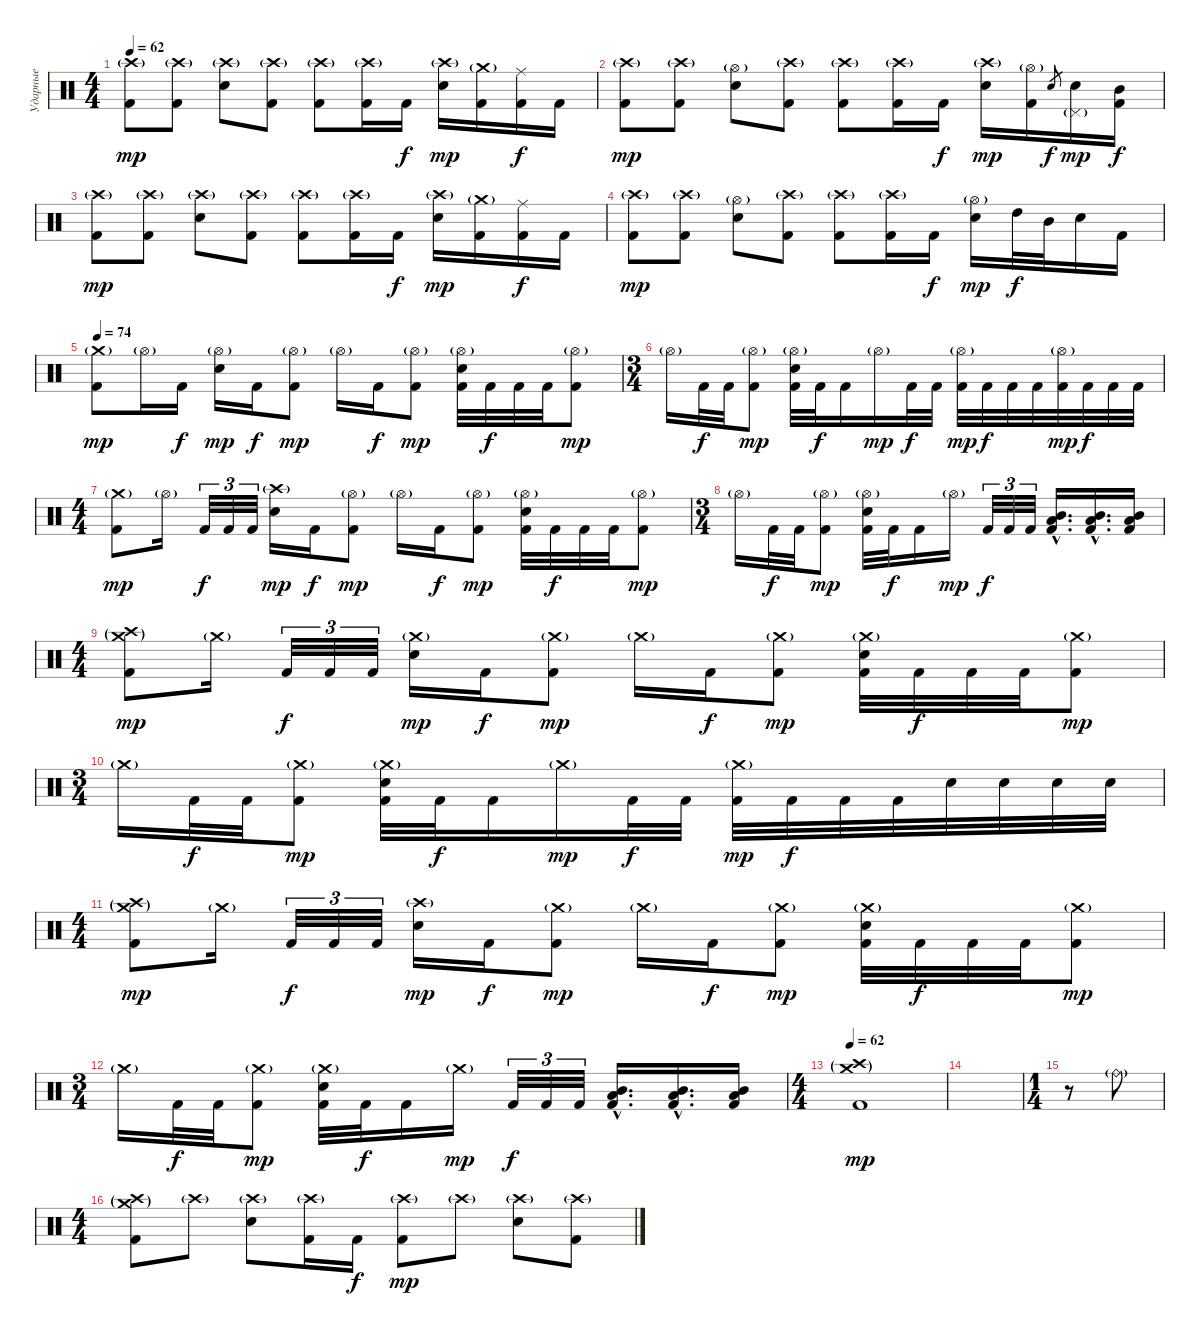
\track ("Ударные" "Ударные") {instrument percussion}
\staff {score}
\articulation defaults
\ts (4 4)
\tempo 62
\clef neutral
\ks c
("Crash high (hit)"{g} "Kick (hit) 2").8{dy mp volume 16} ("Crash high (hit)"{g} "Kick (hit) 2").8 ("Crash high (hit)"{g} "Electric Snare (hit)").8 ("Crash high (hit)"{g} "Kick (hit) 2").8 ("Crash high (hit)"{g} "Kick (hit) 2").8 ("Crash high (hit)"{g} "Kick (hit) 2").16 "Kick (hit) 2".16{dy f} ("Crash high (hit)"{g} "Electric Snare (hit)").16{dy mp} ("Crash medium (hit)"{g} "Kick (hit) 2").16 ("Ride (middle)" "Kick (hit) 2").16{dy f} "Kick (hit) 2".16 |
("Crash high (hit)"{g} "Kick (hit) 2").8{dy mp} ("Crash high (hit)"{g} "Kick (hit) 2").8 ("Hi-Hat (open)"{g} "Electric Snare (hit)").8 ("Crash high (hit)"{g} "Kick (hit) 2").8 ("Crash high (hit)"{g} "Kick (hit) 2").8 ("Crash high (hit)"{g} "Kick (hit) 2").16 "Kick (hit) 2".16{dy f} ("Crash high (hit)"{g} "Electric Snare (hit)").16{dy mp} ("Hi-Hat (open)"{g} "Kick (hit) 2").16 "Electric Snare (hit)".8{gr dy f} ("Pedal Hi-Hat (hit)"{g} "Electric Snare (hit)").16{dy mp} ("Mid Tom (hit)" "Kick (hit) 2").16{dy f} |
("Crash high (hit)"{g} "Kick (hit) 2").8{dy mp} ("Crash high (hit)"{g} "Kick (hit) 2").8 ("Crash high (hit)"{g} "Electric Snare (hit)").8 ("Crash high (hit)"{g} "Kick (hit) 2").8 ("Crash high (hit)"{g} "Kick (hit) 2").8 ("Crash high (hit)"{g} "Kick (hit) 2").16 "Kick (hit) 2".16{dy f} ("Crash high (hit)"{g} "Electric Snare (hit)").16{dy mp} ("Crash medium (hit)"{g} "Kick (hit) 2").16 ("Ride (middle)" "Kick (hit) 2").16{dy f} "Kick (hit) 2".16 |
("Crash high (hit)"{g} "Kick (hit) 2").8{dy mp} ("Crash high (hit)"{g} "Kick (hit) 2").8 ("Hi-Hat (open)"{g} "Electric Snare (hit)").8 ("Crash high (hit)"{g} "Kick (hit) 2").8 ("Crash high (hit)"{g} "Kick (hit) 2").8 ("Crash high (hit)"{g} "Kick (hit) 2").16 "Kick (hit) 2".16{dy f} ("Hi-Hat (open)"{g} "Electric Snare (hit)").16{dy mp} "High Tom (hit)".32{dy f} "Mid Tom (hit)".32 "Electric Snare (hit)".16 "Kick (hit) 2".16 |
\tempo 74
("Crash medium (hit)"{g} "Kick (hit) 2").8{dy mp} "Hi-Hat (open)"{g}.16 "Kick (hit) 2".16{dy f} ("Hi-Hat (open)"{g} "Electric Snare (hit)").16{dy mp} "Kick (hit) 2".16{dy f} ("Hi-Hat (open)"{g} "Kick (hit) 2").8{dy mp} "Hi-Hat (open)"{g}.16 "Kick (hit) 2".16{dy f} ("Hi-Hat (open)"{g} "Kick (hit) 2").8{dy mp} ("Hi-Hat (open)"{g} "Electric Snare (hit)" "Kick (hit) 2").32 "Kick (hit) 2".32{dy f} "Kick (hit) 2".32 "Kick (hit) 2".32 ("Hi-Hat (open)"{g} "Kick (hit) 2").8{dy mp} |
\ts (3 4)
"Hi-Hat (open)"{g}.16 "Kick (hit) 2".32{dy f} "Kick (hit) 2".32 ("Hi-Hat (open)"{g} "Kick (hit) 2").8{dy mp} ("Hi-Hat (open)"{g} "Electric Snare (hit)" "Kick (hit) 2").32 "Kick (hit) 2".32{dy f} "Kick (hit) 2".16 "Hi-Hat (open)"{g}.16{dy mp} "Kick (hit) 2".32{dy f} "Kick (hit) 2".32 ("Hi-Hat (open)"{g} "Kick (hit) 2").32{dy mp} "Kick (hit) 2".32{dy f} "Kick (hit) 2".32 "Kick (hit) 2".32 ("Hi-Hat (open)"{g} "Kick (hit) 2").32{dy mp} "Kick (hit) 2".32{dy f} "Kick (hit) 2".32 "Kick (hit) 2".32 |
\ts (4 4)
("Crash medium (hit)"{g} "Kick (hit) 2").8{dy mp} "Hi-Hat (open)"{g}.16 "Kick (hit) 2".32{tu (3 2) dy f} "Kick (hit) 2".32{tu (3 2)} "Kick (hit) 2".32{tu (3 2)} ("Crash high (hit)"{g} "Electric Snare (hit)").16{dy mp} "Kick (hit) 2".16{dy f} ("Hi-Hat (open)"{g} "Kick (hit) 2").8{dy mp} "Hi-Hat (open)"{g}.16 "Kick (hit) 2".16{dy f} ("Hi-Hat (open)"{g} "Kick (hit) 2").8{dy mp} ("Hi-Hat (open)"{g} "Electric Snare (hit)" "Kick (hit) 2").32 "Kick (hit) 2".32{dy f} "Kick (hit) 2".32 "Kick (hit) 2".32 ("Hi-Hat (open)"{g} "Kick (hit) 2").8{dy mp} |
\ts (3 4)
"Hi-Hat (open)"{g}.16 "Kick (hit) 2".32{dy f} "Kick (hit) 2".32 ("Hi-Hat (open)"{g} "Kick (hit) 2").8{dy mp} ("Hi-Hat (open)"{g} "Electric Snare (hit)" "Kick (hit) 2").32 "Kick (hit) 2".32{dy f} "Kick (hit) 2".16 "Hi-Hat (open)"{g}.16{dy mp} "Kick (hit) 2".32{tu (3 2) dy f} "Kick (hit) 2".32{tu (3 2)} "Kick (hit) 2".32{tu (3 2)} ("Mid Tom (hit)"{hac} "Low Tom (hit)"{hac} "Kick (hit) 2"{hac}).16{d} ("Mid Tom (hit)"{hac} "Low Tom (hit)"{hac} "Kick (hit) 2"{hac}).16{d} ("Mid Tom (hit)" "Low Tom (hit)" "Kick (hit) 2").16 |
\ts (4 4)
("Crash high (hit)"{g} "Crash medium (hit)"{g} "Kick (hit) 2").8{dy mp} "Crash medium (hit)"{g}.16 "Kick (hit) 2".32{tu (3 2) dy f} "Kick (hit) 2".32{tu (3 2)} "Kick (hit) 2".32{tu (3 2)} ("Crash medium (hit)"{g} "Electric Snare (hit)").16{dy mp} "Kick (hit) 2".16{dy f} ("Crash medium (hit)"{g} "Kick (hit) 2").8{dy mp} "Crash medium (hit)"{g}.16 "Kick (hit) 2".16{dy f} ("Crash medium (hit)"{g} "Kick (hit) 2").8{dy mp} ("Crash medium (hit)"{g} "Electric Snare (hit)" "Kick (hit) 2").32 "Kick (hit) 2".32{dy f} "Kick (hit) 2".32 "Kick (hit) 2".32 ("Crash medium (hit)"{g} "Kick (hit) 2").8{dy mp} |
\ts (3 4)
"Crash medium (hit)"{g}.16 "Kick (hit) 2".32{dy f} "Kick (hit) 2".32 ("Crash medium (hit)"{g} "Kick (hit) 2").8{dy mp} ("Crash medium (hit)"{g} "Electric Snare (hit)" "Kick (hit) 2").32 "Kick (hit) 2".32{dy f} "Kick (hit) 2".16 "Crash medium (hit)"{g}.16{dy mp} "Kick (hit) 2".32{dy f} "Kick (hit) 2".32 ("Crash medium (hit)"{g} "Kick (hit) 2").32{dy mp} "Kick (hit) 2".32{dy f} "Kick (hit) 2".32 "Kick (hit) 2".32 "Electric Snare (hit)".32 "Electric Snare (hit)".32 "Electric Snare (hit)".32 "Electric Snare (hit)".32 |
\ts (4 4)
("Crash high (hit)"{g} "Crash medium (hit)"{g} "Kick (hit) 2").8{dy mp} "Crash medium (hit)"{g}.16 "Kick (hit) 2".32{tu (3 2) dy f} "Kick (hit) 2".32{tu (3 2)} "Kick (hit) 2".32{tu (3 2)} ("Crash high (hit)"{g} "Electric Snare (hit)").16{dy mp} "Kick (hit) 2".16{dy f} ("Crash medium (hit)"{g} "Kick (hit) 2").8{dy mp} "Crash medium (hit)"{g}.16 "Kick (hit) 2".16{dy f} ("Crash medium (hit)"{g} "Kick (hit) 2").8{dy mp} ("Crash medium (hit)"{g} "Electric Snare (hit)" "Kick (hit) 2").32 "Kick (hit) 2".32{dy f} "Kick (hit) 2".32 "Kick (hit) 2".32 ("Crash medium (hit)"{g} "Kick (hit) 2").8{dy mp} |
\ts (3 4)
"Crash medium (hit)"{g}.16 "Kick (hit) 2".32{dy f} "Kick (hit) 2".32 ("Crash medium (hit)"{g} "Kick (hit) 2").8{dy mp} ("Crash medium (hit)"{g} "Electric Snare (hit)" "Kick (hit) 2").32 "Kick (hit) 2".32{dy f} "Kick (hit) 2".16 "Crash medium (hit)"{g}.16{dy mp} "Kick (hit) 2".32{tu (3 2) dy f} "Kick (hit) 2".32{tu (3 2)} "Kick (hit) 2".32{tu (3 2)} ("Mid Tom (hit)"{hac} "Low Tom (hit)"{hac} "Kick (hit) 2"{hac}).16{d} ("Mid Tom (hit)"{hac} "Low Tom (hit)"{hac} "Kick (hit) 2"{hac}).16{d} ("Mid Tom (hit)" "Low Tom (hit)" "Kick (hit) 2").16 |
\ts (4 4)
\tempo 62
("Crash high (hit)"{g} "Crash medium (hit)"{g} "Kick (hit) 2").1{dy mp} |
|
\ts (1 4)
r.8 "Ride (bell)"{g}.8 |
\ts (4 4)
("Crash high (hit)"{g} "Crash medium (hit)"{g} "Kick (hit) 2").8 "Crash high (hit)"{g}.8 ("Crash high (hit)"{g} "Electric Snare (hit)").8 ("Crash high (hit)"{g} "Kick (hit) 2").16 "Kick (hit) 2".16{dy f} ("Crash high (hit)"{g} "Kick (hit) 2").8{dy mp} "Crash high (hit)"{g}.8 ("Crash high (hit)"{g} "Electric Snare (hit)").8 ("Crash high (hit)"{g} "Kick (hit) 2").8
